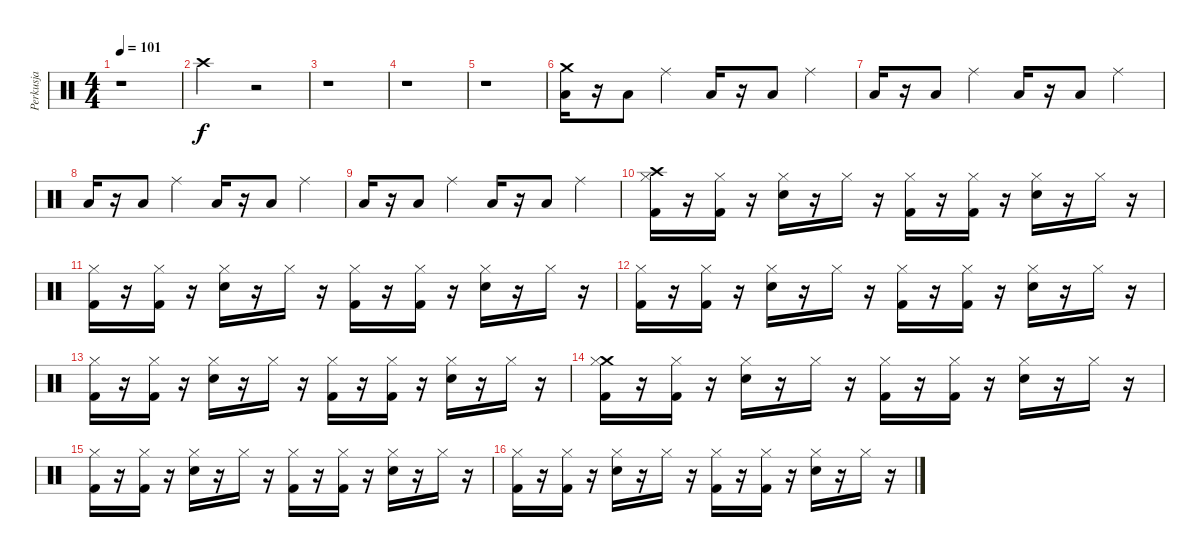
\track ("Perkusja" "Perkusja") {instrument percussion}
\staff {score}
\articulation defaults
\ts (4 4)
\tempo 101
\clef neutral
\ks c
r.1{dy f} |
"Crash high (hit)".2 r.2 |
r.1 |
r.1 |
r.1 |
("Low Tom (hit)" "Crash medium (hit)").16 r.16 "Low Tom (hit)".8 "Ride (middle)".4 "Low Tom (hit)".16 r.16 "Low Tom (hit)".8 "Ride (middle)".4 |
"Low Tom (hit)".16 r.16 "Low Tom (hit)".8 "Ride (middle)".4 "Low Tom (hit)".16 r.16 "Low Tom (hit)".8 "Ride (middle)".4 |
"Low Tom (hit)".16 r.16 "Low Tom (hit)".8 "Ride (middle)".4 "Low Tom (hit)".16 r.16 "Low Tom (hit)".8 "Ride (middle)".4 |
"Low Tom (hit)".16 r.16 "Low Tom (hit)".8 "Ride (middle)".4 "Low Tom (hit)".16 r.16 "Low Tom (hit)".8 "Ride (middle)".4 |
("Crash high (hit)" "Hi-Hat (closed)" "Kick (hit) 2").16 r.16 ("Hi-Hat (closed)" "Kick (hit) 2").16 r.16 ("Snare (hit) 2" "Hi-Hat (closed)").16 r.16 "Hi-Hat (closed)".16 r.16 ("Kick (hit) 2" "Hi-Hat (closed)").16 r.16 ("Hi-Hat (closed)" "Kick (hit) 2").16 r.16 ("Snare (hit) 2" "Hi-Hat (closed)").16 r.16 "Hi-Hat (closed)".16 r.16 |
("Kick (hit) 2" "Hi-Hat (closed)").16 r.16 ("Kick (hit) 2" "Hi-Hat (closed)").16 r.16 ("Hi-Hat (closed)" "Snare (hit) 2").16 r.16 "Hi-Hat (closed)".16 r.16 ("Kick (hit) 2" "Hi-Hat (closed)").16 r.16 ("Kick (hit) 2" "Hi-Hat (closed)").16 r.16 ("Hi-Hat (closed)" "Snare (hit) 2").16 r.16 "Hi-Hat (closed)".16 r.16 |
("Hi-Hat (closed)" "Kick (hit) 2").16 r.16 ("Kick (hit) 2" "Hi-Hat (closed)").16 r.16 ("Snare (hit) 2" "Hi-Hat (closed)").16 r.16 "Hi-Hat (closed)".16 r.16 ("Kick (hit) 2" "Hi-Hat (closed)").16 r.16 ("Hi-Hat (closed)" "Kick (hit) 2").16 r.16 ("Hi-Hat (closed)" "Snare (hit) 2").16 r.16 "Hi-Hat (closed)".16 r.16 |
("Kick (hit) 2" "Hi-Hat (closed)").16 r.16 ("Kick (hit) 2" "Hi-Hat (closed)").16 r.16 ("Hi-Hat (closed)" "Snare (hit) 2").16 r.16 "Hi-Hat (closed)".16 r.16 ("Hi-Hat (closed)" "Kick (hit) 2").16 r.16 ("Hi-Hat (closed)" "Kick (hit) 2").16 r.16 ("Snare (hit) 2" "Hi-Hat (closed)").16 r.16 "Hi-Hat (closed)".16 r.16 |
("Crash medium (hit)" "Hi-Hat (closed)" "Kick (hit) 2").16 r.16 ("Kick (hit) 2" "Hi-Hat (closed)").16 r.16 ("Hi-Hat (closed)" "Snare (hit) 2").16 r.16 "Hi-Hat (closed)".16 r.16 ("Kick (hit) 2" "Hi-Hat (closed)").16 r.16 ("Hi-Hat (closed)" "Kick (hit) 2").16 r.16 ("Snare (hit) 2" "Hi-Hat (closed)").16 r.16 "Hi-Hat (closed)".16 r.16 |
("Kick (hit) 2" "Hi-Hat (closed)").16 r.16 ("Hi-Hat (closed)" "Kick (hit) 2").16 r.16 ("Snare (hit) 2" "Hi-Hat (closed)").16 r.16 "Hi-Hat (closed)".16 r.16 ("Hi-Hat (closed)" "Kick (hit) 2").16 r.16 ("Hi-Hat (closed)" "Kick (hit) 2").16 r.16 ("Hi-Hat (closed)" "Snare (hit) 2").16 r.16 "Hi-Hat (closed)".16 r.16 |
("Hi-Hat (closed)" "Kick (hit) 2").16 r.16 ("Hi-Hat (closed)" "Kick (hit) 2").16 r.16 ("Snare (hit) 2" "Hi-Hat (closed)").16 r.16 "Hi-Hat (closed)".16 r.16 ("Kick (hit) 2" "Hi-Hat (closed)").16 r.16 ("Hi-Hat (closed)" "Kick (hit) 2").16 r.16 ("Snare (hit) 2" "Hi-Hat (closed)").16 r.16 "Hi-Hat (closed)".16 r.16
